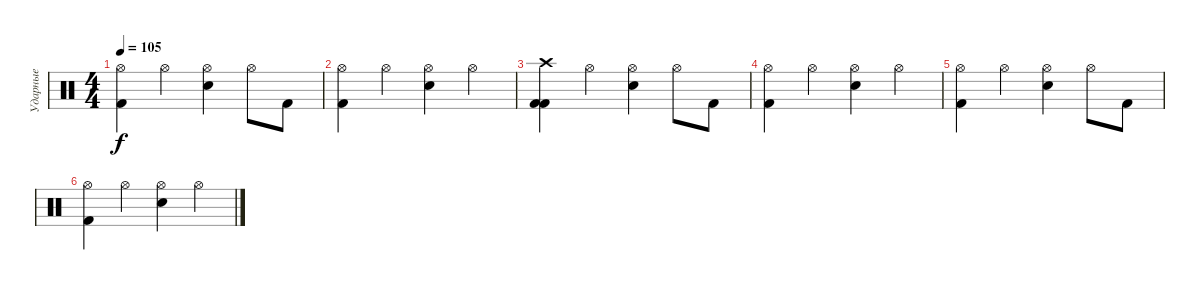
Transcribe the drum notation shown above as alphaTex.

\track ("Ударные" "Ударные") {instrument percussion}
\staff {score}
\articulation defaults
\ts (4 4)
\tempo 105
\clef neutral
\ks c
("Hi-Hat (open)" "Kick (hit) 2").4{dy f} "Hi-Hat (open)".4 ("Electric Snare (hit)" "Hi-Hat (open)").4 "Hi-Hat (open)".8 "Kick (hit) 2".8 |
("Kick (hit) 2" "Hi-Hat (open)").4 "Hi-Hat (open)".4 ("Hi-Hat (open)" "Electric Snare (hit)").4 "Hi-Hat (open)".4 |
("Crash high (hit)" "Kick (hit) 2" "Kick (hit) 2").4 "Hi-Hat (open)".4 ("Electric Snare (hit)" "Hi-Hat (open)").4 "Hi-Hat (open)".8 "Kick (hit) 2".8 |
("Kick (hit) 2" "Hi-Hat (open)").4 "Hi-Hat (open)".4 ("Hi-Hat (open)" "Electric Snare (hit)").4 "Hi-Hat (open)".4 |
("Hi-Hat (open)" "Kick (hit) 2").4 "Hi-Hat (open)".4 ("Electric Snare (hit)" "Hi-Hat (open)").4 "Hi-Hat (open)".8 "Kick (hit) 2".8 |
("Kick (hit) 2" "Hi-Hat (open)").4 "Hi-Hat (open)".4 ("Hi-Hat (open)" "Electric Snare (hit)").4 "Hi-Hat (open)".4
